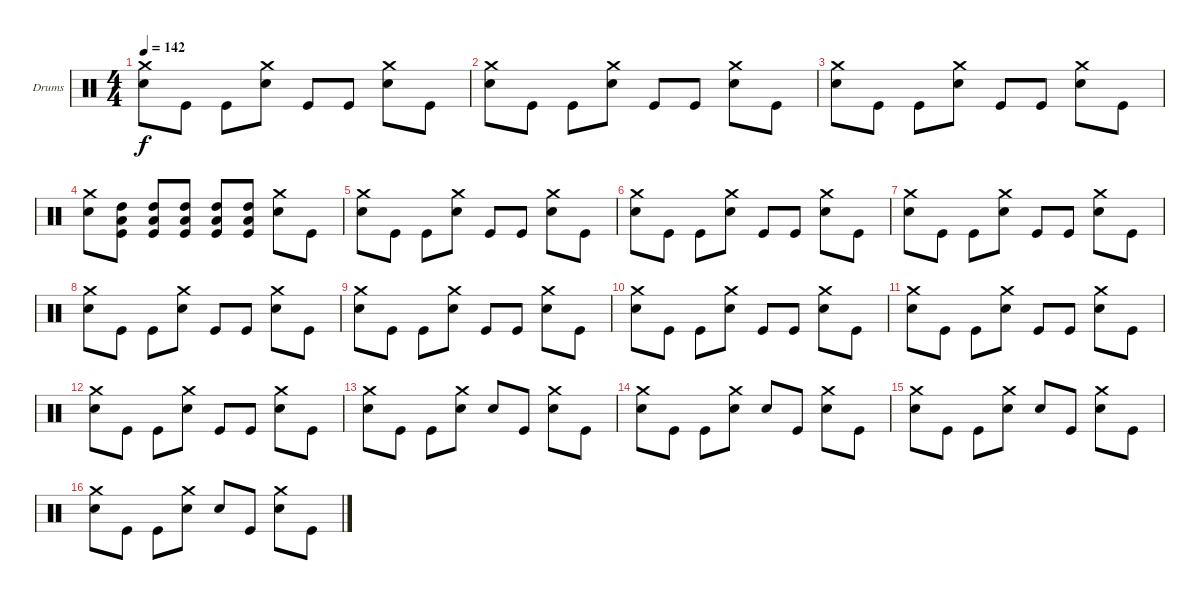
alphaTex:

\defaultSystemsLayout 4
\bracketExtendMode groupsimilarinstruments
\firstSystemTrackNameOrientation horizontal
\otherSystemsTrackNameOrientation horizontal
\track ("Drumkit" "Drums") {instrument percussion}
\staff {score}
\articulation defaults
\ts (4 4)
\tempo 142
\clef neutral
\scale
0.333333
\ks c
("Snare (hit) 2" "Crash medium (hit)").8{dy f} "Kick (hit)".8 "Kick (hit)".8 ("Snare (hit) 2" "Crash medium (hit)").8 "Kick (hit)".8 "Kick (hit)".8 ("Snare (hit) 2" "Crash medium (hit)").8 "Kick (hit)".8 |
\scale
0.333333 ("Snare (hit) 2" "Crash medium (hit)").8 "Kick (hit)".8 "Kick (hit)".8 ("Snare (hit) 2" "Crash medium (hit)").8 "Kick (hit)".8 "Kick (hit)".8 ("Snare (hit) 2" "Crash medium (hit)").8 "Kick (hit)".8 |
\scale
0.333333 ("Snare (hit) 2" "Crash medium (hit)").8 "Kick (hit)".8 "Kick (hit)".8 ("Snare (hit) 2" "Crash medium (hit)").8 "Kick (hit)".8 "Kick (hit)".8 ("Snare (hit) 2" "Crash medium (hit)").8 "Kick (hit)".8 |
\scale
0.333333 ("Snare (hit) 2" "Crash medium (hit)").8 ("Kick (hit)" "Low Tom (hit)" "High Tom (hit)").8 ("Kick (hit)" "Low Tom (hit)" "High Tom (hit)").8 ("Kick (hit)" "Low Tom (hit)" "High Tom (hit)").8 ("Kick (hit)" "Low Tom (hit)" "High Tom (hit)").8 ("Kick (hit)" "Low Tom (hit)" "High Tom (hit)").8 ("Snare (hit) 2" "Crash medium (hit)").8 "Kick (hit)".8 |
\scale
0.333333 ("Snare (hit) 2" "Crash medium (hit)").8 "Kick (hit)".8 "Kick (hit)".8 ("Snare (hit) 2" "Crash medium (hit)").8 "Kick (hit)".8 "Kick (hit)".8 ("Snare (hit) 2" "Crash medium (hit)").8 "Kick (hit)".8 |
\scale
0.333333 ("Snare (hit) 2" "Crash medium (hit)").8 "Kick (hit)".8 "Kick (hit)".8 ("Snare (hit) 2" "Crash medium (hit)").8 "Kick (hit)".8 "Kick (hit)".8 ("Snare (hit) 2" "Crash medium (hit)").8 "Kick (hit)".8 |
\scale
0.333333 ("Snare (hit) 2" "Crash medium (hit)").8 "Kick (hit)".8 "Kick (hit)".8 ("Snare (hit) 2" "Crash medium (hit)").8 "Kick (hit)".8 "Kick (hit)".8 ("Snare (hit) 2" "Crash medium (hit)").8 "Kick (hit)".8 |
\scale
0.333333 ("Snare (hit) 2" "Crash medium (hit)").8 "Kick (hit)".8 "Kick (hit)".8 ("Snare (hit) 2" "Crash medium (hit)").8 "Kick (hit)".8 "Kick (hit)".8 ("Snare (hit) 2" "Crash medium (hit)").8 "Kick (hit)".8 |
\scale
0.333333 ("Snare (hit) 2" "Crash medium (hit)").8 "Kick (hit)".8 "Kick (hit)".8 ("Snare (hit) 2" "Crash medium (hit)").8 "Kick (hit)".8 "Kick (hit)".8 ("Snare (hit) 2" "Crash medium (hit)").8 "Kick (hit)".8 |
\scale
0.333333 ("Snare (hit) 2" "Crash medium (hit)").8 "Kick (hit)".8 "Kick (hit)".8 ("Snare (hit) 2" "Crash medium (hit)").8 "Kick (hit)".8 "Kick (hit)".8 ("Snare (hit) 2" "Crash medium (hit)").8 "Kick (hit)".8 |
\scale
0.333333 ("Snare (hit) 2" "Crash medium (hit)").8 "Kick (hit)".8 "Kick (hit)".8 ("Snare (hit) 2" "Crash medium (hit)").8 "Kick (hit)".8 "Kick (hit)".8 ("Snare (hit) 2" "Crash medium (hit)").8 "Kick (hit)".8 |
\scale
0.333333 ("Snare (hit) 2" "Crash medium (hit)").8 "Kick (hit)".8 "Kick (hit)".8 ("Snare (hit) 2" "Crash medium (hit)").8 "Kick (hit)".8 "Kick (hit)".8 ("Snare (hit) 2" "Crash medium (hit)").8 "Kick (hit)".8 |
\scale
0.333333 ("Snare (hit) 2" "Crash medium (hit)").8 "Kick (hit)".8 "Kick (hit)".8 ("Snare (hit) 2" "Crash medium (hit)").8 "Snare (hit) 2".8 "Kick (hit)".8 ("Snare (hit) 2" "Crash medium (hit)").8 "Kick (hit)".8 |
\scale
0.333333 ("Snare (hit) 2" "Crash medium (hit)").8 "Kick (hit)".8 "Kick (hit)".8 ("Snare (hit) 2" "Crash medium (hit)").8 "Snare (hit) 2".8 "Kick (hit)".8 ("Snare (hit) 2" "Crash medium (hit)").8 "Kick (hit)".8 |
\scale
0.333333 ("Snare (hit) 2" "Crash medium (hit)").8 "Kick (hit)".8 "Kick (hit)".8 ("Snare (hit) 2" "Crash medium (hit)").8 "Snare (hit) 2".8 "Kick (hit)".8 ("Snare (hit) 2" "Crash medium (hit)").8 "Kick (hit)".8 |
\scale
0.333333 ("Snare (hit) 2" "Crash medium (hit)").8 "Kick (hit)".8 "Kick (hit)".8 ("Snare (hit) 2" "Crash medium (hit)").8 "Snare (hit) 2".8 "Kick (hit)".8 ("Snare (hit) 2" "Crash medium (hit)").8 "Kick (hit)".8
